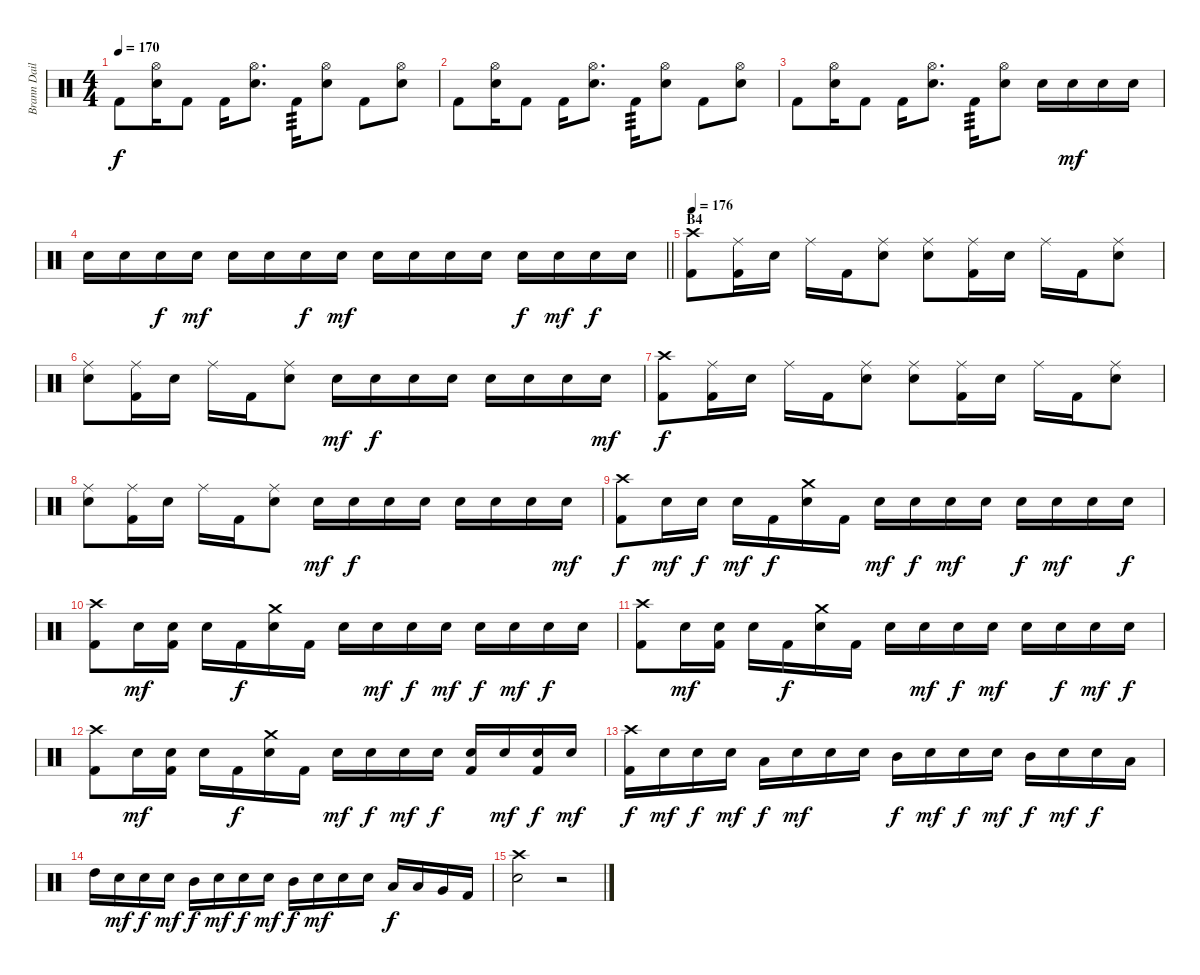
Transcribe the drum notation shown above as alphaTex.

\track ("Brann Dailor" "Brann Dail") {instrument percussion}
\staff {score}
\articulation defaults
\ts (4 4)
\tempo 170
\clef neutral
\ks c "Kick (hit) 2".8{dy f}
("Hi-Hat (open)" "Snare (hit) 2").16 "Kick (hit) 2".8 "Kick (hit) 2".16 ("Hi-Hat (open)" "Snare (hit) 2").8{d} "Kick (hit) 2".16{tp 3} ("Hi-Hat (open)" "Snare (hit) 2").8 "Kick (hit) 2".8 ("Hi-Hat (open)" "Snare (hit) 2").8 |
"Kick (hit) 2".8 ("Hi-Hat (open)" "Snare (hit) 2").16 "Kick (hit) 2".8 "Kick (hit) 2".16 ("Hi-Hat (open)" "Snare (hit) 2").8{d} "Kick (hit) 2".16{tp 3} ("Hi-Hat (open)" "Snare (hit) 2").8 "Kick (hit) 2".8 ("Hi-Hat (open)" "Snare (hit) 2").8 |
"Kick (hit) 2".8 ("Hi-Hat (open)" "Snare (hit) 2").16 "Kick (hit) 2".8 "Kick (hit) 2".16 ("Hi-Hat (open)" "Snare (hit) 2").8{d} "Kick (hit) 2".16{tp 3} ("Hi-Hat (open)" "Snare (hit) 2").8 "Snare (hit) 2".16 "Snare (hit) 2".16{dy mf} "Snare (hit) 2".16 "Snare (hit) 2".16 |
\barLineRight lightlight "Snare (hit) 2".16 "Snare (hit) 2".16 "Snare (hit) 2".16{dy f} "Snare (hit) 2".16{dy mf} "Snare (hit) 2".16 "Snare (hit) 2".16 "Snare (hit) 2".16{dy f} "Snare (hit) 2".16{dy mf} "Snare (hit) 2".16 "Snare (hit) 2".16 "Snare (hit) 2".16 "Snare (hit) 2".16 "Snare (hit) 2".16{dy f} "Snare (hit) 2".16{dy mf} "Snare (hit) 2".16{dy f} "Snare (hit) 2".16
|
\section ("" "B4")
\tempo 176
("Crash high (hit)" "Kick (hit) 2").8 ("Ride (middle)" "Kick (hit) 2").16 "Snare (hit) 2".16 "Ride (middle)".16 "Kick (hit) 2".16 ("Ride (middle)" "Snare (hit) 2").8 ("Ride (middle)" "Snare (hit) 2").8 ("Ride (middle)" "Kick (hit) 2").16 "Snare (hit) 2".16 "Ride (middle)".16 "Kick (hit) 2".16 ("Ride (middle)" "Snare (hit) 2").8 |
("Ride (middle)" "Snare (hit) 2").8 ("Ride (middle)" "Kick (hit) 2").16 "Snare (hit) 2".16 "Ride (middle)".16 "Kick (hit) 2".16 ("Ride (middle)" "Snare (hit) 2").8 "Snare (hit) 2".16{dy mf} "Snare (hit) 2".16{dy f} "Snare (hit) 2".16 "Snare (hit) 2".16 "Snare (hit) 2".16 "Snare (hit) 2".16 "Snare (hit) 2".16 "Snare (hit) 2".16{dy mf} |
("Crash high (hit)" "Kick (hit) 2").8{dy f} ("Ride (middle)" "Kick (hit) 2").16 "Snare (hit) 2".16 "Ride (middle)".16 "Kick (hit) 2".16 ("Ride (middle)" "Snare (hit) 2").8 ("Ride (middle)" "Snare (hit) 2").8 ("Ride (middle)" "Kick (hit) 2").16 "Snare (hit) 2".16 "Ride (middle)".16 "Kick (hit) 2".16 ("Ride (middle)" "Snare (hit) 2").8 |
("Ride (middle)" "Snare (hit) 2").8 ("Ride (middle)" "Kick (hit) 2").16 "Snare (hit) 2".16 "Ride (middle)".16 "Kick (hit) 2".16 ("Ride (middle)" "Snare (hit) 2").8 "Snare (hit) 2".16{dy mf} "Snare (hit) 2".16{dy f} "Snare (hit) 2".16 "Snare (hit) 2".16 "Snare (hit) 2".16 "Snare (hit) 2".16 "Snare (hit) 2".16 "Snare (hit) 2".16{dy mf} |
("Crash high (hit)" "Kick (hit) 2").8{dy f} "Snare (hit) 2".16{dy mf} "Snare (hit) 2".16{dy f} "Snare (hit) 2".16{dy mf} "Kick (hit) 2".16{dy f} ("Crash medium (hit)" "Snare (hit) 2").16 "Kick (hit) 2".16 "Snare (hit) 2".16{dy mf} "Snare (hit) 2".16{dy f} "Snare (hit) 2".16{dy mf} "Snare (hit) 2".16 "Snare (hit) 2".16{dy f} "Snare (hit) 2".16{dy mf} "Snare (hit) 2".16 "Snare (hit) 2".16{dy f} |
("Crash high (hit)" "Kick (hit) 2").8 "Snare (hit) 2".16{dy mf} ("Snare (hit) 2" "Kick (hit) 2").16 "Snare (hit) 2".16 "Kick (hit) 2".16{dy f} ("Crash medium (hit)" "Snare (hit) 2").16 "Kick (hit) 2".16 "Snare (hit) 2".16 "Snare (hit) 2".16{dy mf} "Snare (hit) 2".16{dy f} "Snare (hit) 2".16{dy mf} "Snare (hit) 2".16{dy f} "Snare (hit) 2".16{dy mf} "Snare (hit) 2".16{dy f} "Snare (hit) 2".16 |
("Crash high (hit)" "Kick (hit) 2").8 "Snare (hit) 2".16{dy mf} ("Snare (hit) 2" "Kick (hit) 2").16 "Snare (hit) 2".16 "Kick (hit) 2".16{dy f} ("Crash medium (hit)" "Snare (hit) 2").16 "Kick (hit) 2".16 "Snare (hit) 2".16 "Snare (hit) 2".16{dy mf} "Snare (hit) 2".16{dy f} "Snare (hit) 2".16{dy mf} "Snare (hit) 2".16 "Snare (hit) 2".16{dy f} "Snare (hit) 2".16{dy mf} "Snare (hit) 2".16{dy f} |
("Crash high (hit)" "Kick (hit) 2").8 "Snare (hit) 2".16{dy mf} ("Snare (hit) 2" "Kick (hit) 2").16 "Snare (hit) 2".16 "Kick (hit) 2".16{dy f} ("Crash medium (hit)" "Snare (hit) 2").16 "Kick (hit) 2".16 "Snare (hit) 2".16{dy mf} "Snare (hit) 2".16{dy f} "Snare (hit) 2".16{dy mf} "Snare (hit) 2".16{dy f} ("Snare (hit) 2" "Kick (hit) 2").16 "Snare (hit) 2".16{dy mf} ("Snare (hit) 2" "Kick (hit) 2").16{dy f} "Snare (hit) 2".16{dy mf} |
("Crash high (hit)" "Kick (hit) 2").16{dy f} "Snare (hit) 2".16{dy mf} "Snare (hit) 2".16{dy f} "Snare (hit) 2".16{dy mf} "Low Tom (hit)".16{dy f} "Snare (hit) 2".16{dy mf} "Snare (hit) 2".16 "Snare (hit) 2".16 "Mid Tom (hit)".16{dy f} "Snare (hit) 2".16{dy mf} "Snare (hit) 2".16{dy f} "Snare (hit) 2".16{dy mf} "Mid Tom (hit)".16{dy f} "Snare (hit) 2".16{dy mf} "Snare (hit) 2".16{dy f} "Low Tom (hit)".16 |
"High Tom (hit)".16 "Snare (hit) 2".16{dy mf} "Snare (hit) 2".16{dy f} "Snare (hit) 2".16{dy mf} "Mid Tom (hit)".16{dy f} "Snare (hit) 2".16{dy mf} "Snare (hit) 2".16{dy f} "Snare (hit) 2".16{dy mf} "Mid Tom (hit)".16{dy f} "Snare (hit) 2".16{dy mf} "Snare (hit) 2".16 "Snare (hit) 2".16 "Low Tom (hit)".16{dy f} "Low Tom (hit)".16 "Very Low Tom (hit)".16 "Kick (hit) 2".16 |
("Crash high (hit)" "Snare (hit) 2").2 r.2
